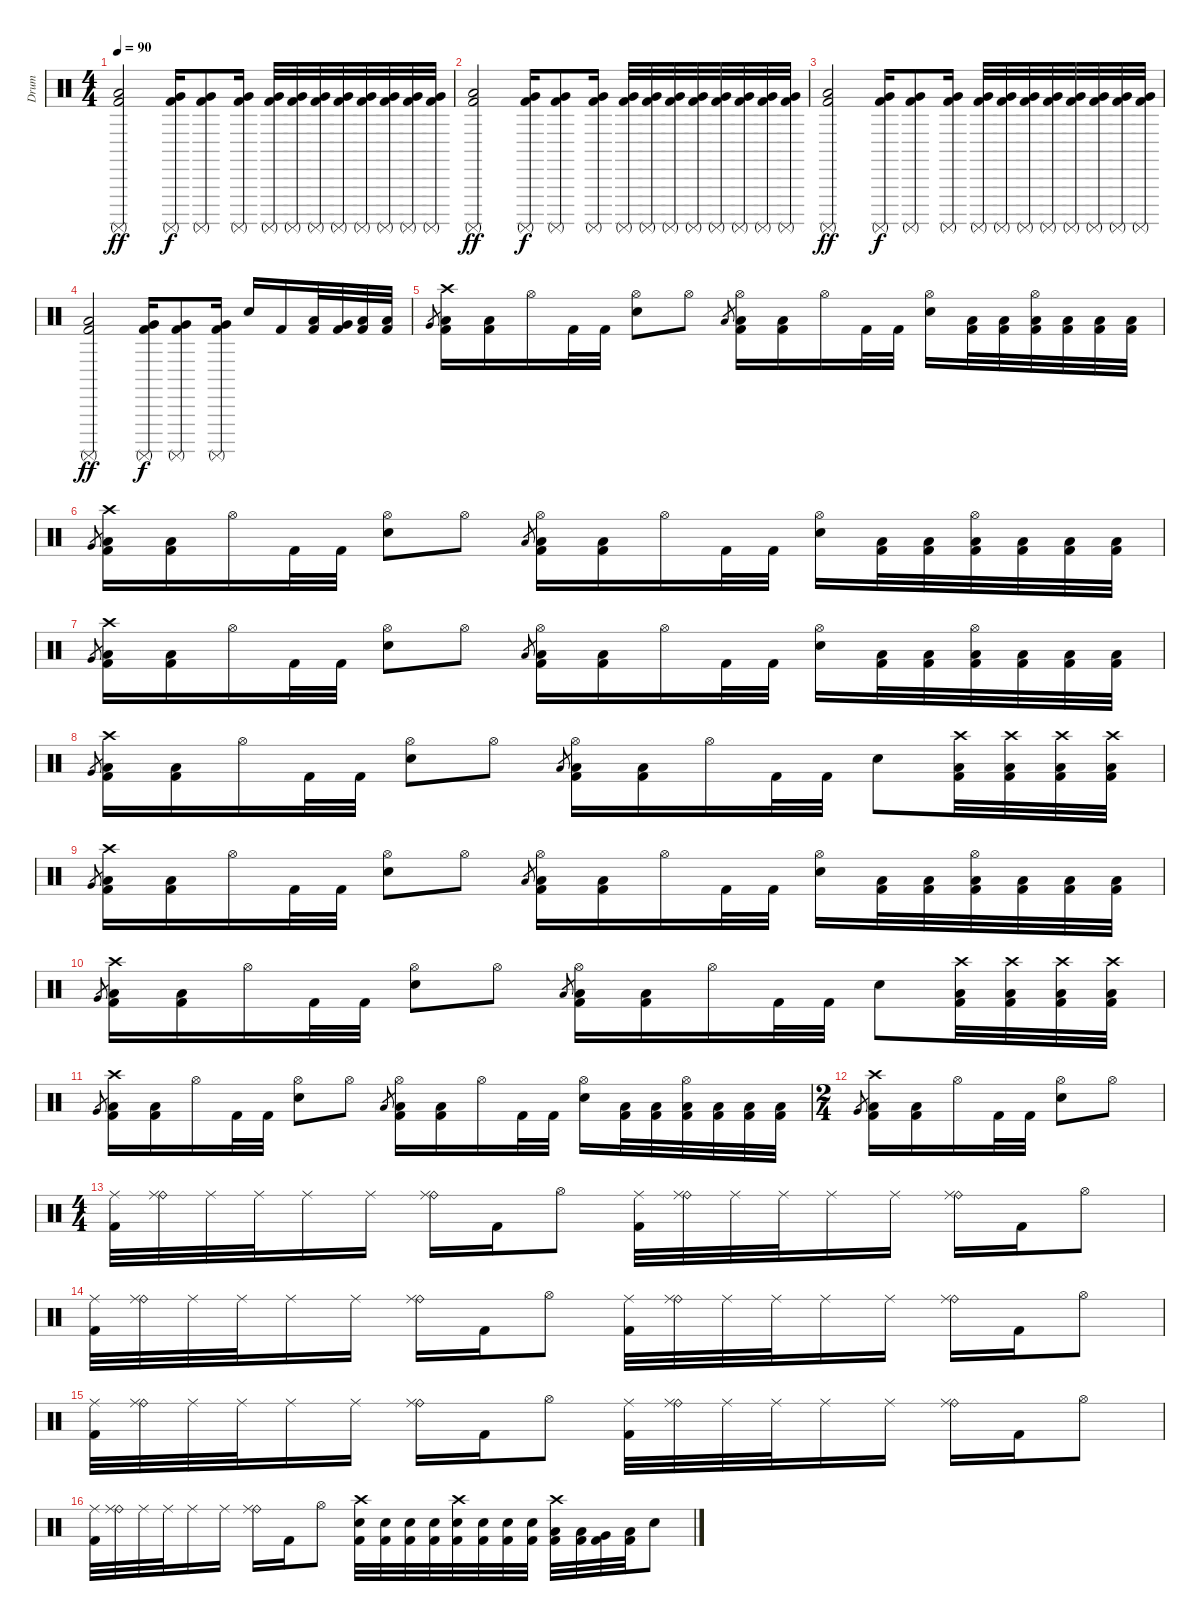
\track ("Drum" "Drum") {instrument percussion}
\staff {score}
\articulation defaults
\ts (4 4)
\tempo 90
\clef neutral
\ks c
("Surdo (mute)" "Low Floor Tom (hit)" "Kick (hit) 2").2{dy ff} ("Surdo (mute)" "Very Low Tom (hit)" "Kick (hit) 2").16{dy f} ("Surdo (mute)" "Very Low Tom (hit)" "Kick (hit) 2").8 ("Surdo (mute)" "Very Low Tom (hit)" "Kick (hit) 2").16 ("Surdo (mute)" "Very Low Tom (hit)" "Kick (hit) 2").32 ("Surdo (mute)" "Very Low Tom (hit)" "Kick (hit) 2").32 ("Surdo (mute)" "Very Low Tom (hit)" "Kick (hit) 2").32 ("Surdo (mute)" "Very Low Tom (hit)" "Kick (hit) 2").32 ("Surdo (mute)" "Very Low Tom (hit)" "Kick (hit) 2").32 ("Surdo (mute)" "Very Low Tom (hit)" "Kick (hit) 2").32 ("Surdo (mute)" "Very Low Tom (hit)" "Kick (hit) 2").32 ("Surdo (mute)" "Very Low Tom (hit)" "Kick (hit) 2").32 |
("Surdo (mute)" "Low Floor Tom (hit)" "Kick (hit) 2").2{dy ff} ("Surdo (mute)" "Very Low Tom (hit)" "Kick (hit) 2").16{dy f} ("Surdo (mute)" "Very Low Tom (hit)" "Kick (hit) 2").8 ("Surdo (mute)" "Very Low Tom (hit)" "Kick (hit) 2").16 ("Surdo (mute)" "Very Low Tom (hit)" "Kick (hit) 2").32 ("Surdo (mute)" "Very Low Tom (hit)" "Kick (hit) 2").32 ("Surdo (mute)" "Very Low Tom (hit)" "Kick (hit) 2").32 ("Surdo (mute)" "Very Low Tom (hit)" "Kick (hit) 2").32 ("Surdo (mute)" "Very Low Tom (hit)" "Kick (hit) 2").32 ("Surdo (mute)" "Very Low Tom (hit)" "Kick (hit) 2").32 ("Surdo (mute)" "Very Low Tom (hit)" "Kick (hit) 2").32 ("Surdo (mute)" "Very Low Tom (hit)" "Kick (hit) 2").32 |
("Surdo (mute)" "Low Floor Tom (hit)" "Kick (hit) 2").2{dy ff} ("Surdo (mute)" "Very Low Tom (hit)" "Kick (hit) 2").16{dy f} ("Surdo (mute)" "Very Low Tom (hit)" "Kick (hit) 2").8 ("Surdo (mute)" "Very Low Tom (hit)" "Kick (hit) 2").16 ("Surdo (mute)" "Very Low Tom (hit)" "Kick (hit) 2").32 ("Surdo (mute)" "Very Low Tom (hit)" "Kick (hit) 2").32 ("Surdo (mute)" "Very Low Tom (hit)" "Kick (hit) 2").32 ("Surdo (mute)" "Very Low Tom (hit)" "Kick (hit) 2").32 ("Surdo (mute)" "Very Low Tom (hit)" "Kick (hit) 2").32 ("Surdo (mute)" "Very Low Tom (hit)" "Kick (hit) 2").32 ("Surdo (mute)" "Very Low Tom (hit)" "Kick (hit) 2").32 ("Surdo (mute)" "Very Low Tom (hit)" "Kick (hit) 2").32 |
("Surdo (mute)" "Low Floor Tom (hit)" "Kick (hit) 2").2{dy ff} ("Surdo (mute)" "Very Low Tom (hit)" "Kick (hit) 2").16{dy f} ("Surdo (mute)" "Very Low Tom (hit)" "Kick (hit) 2").8 ("Surdo (mute)" "Very Low Tom (hit)" "Kick (hit) 2").16 "Electric Snare (hit)".16 "Kick (hit) 2".16 ("Low Tom (hit)" "Kick (hit) 2").32 ("Very Low Tom (hit)" "Kick (hit) 2").32 ("Low Floor Tom (hit)" "Kick (hit) 2").32 ("Low Tom (hit)" "Kick (hit) 2").32 |
"Very Low Tom (hit)".8{gr} ("Crash high (hit)" "Low Floor Tom (hit)" "Kick (hit) 2").16 ("Low Floor Tom (hit)" "Kick (hit) 2").16 "Hi-Hat (open)".16 "Kick (hit) 2".32 "Kick (hit) 2".32 ("Hi-Hat (open)" "Electric Snare (hit)").8 "Hi-Hat (open)".8 "Low Floor Tom (hit)".8{gr} ("Hi-Hat (open)" "Low Floor Tom (hit)" "Kick (hit) 2").16 ("Low Floor Tom (hit)" "Kick (hit) 2").16 "Hi-Hat (open)".16 "Kick (hit) 2".32 "Kick (hit) 2".32 ("Hi-Hat (open)" "Electric Snare (hit)").16 ("Low Floor Tom (hit)" "Kick (hit) 2").32 ("Low Floor Tom (hit)" "Kick (hit) 2").32 ("Hi-Hat (open)" "Low Floor Tom (hit)" "Kick (hit) 2").32 ("Low Floor Tom (hit)" "Kick (hit) 2").32 ("Low Floor Tom (hit)" "Kick (hit) 2").32 ("Low Floor Tom (hit)" "Kick (hit) 2").32 |
"Very Low Tom (hit)".8{gr} ("Crash high (hit)" "Low Floor Tom (hit)" "Kick (hit) 2").16 ("Low Floor Tom (hit)" "Kick (hit) 2").16 "Hi-Hat (open)".16 "Kick (hit) 2".32 "Kick (hit) 2".32 ("Hi-Hat (open)" "Electric Snare (hit)").8 "Hi-Hat (open)".8 "Low Floor Tom (hit)".8{gr} ("Hi-Hat (open)" "Low Floor Tom (hit)" "Kick (hit) 2").16 ("Low Floor Tom (hit)" "Kick (hit) 2").16 "Hi-Hat (open)".16 "Kick (hit) 2".32 "Kick (hit) 2".32 ("Hi-Hat (open)" "Electric Snare (hit)").16 ("Low Floor Tom (hit)" "Kick (hit) 2").32 ("Low Floor Tom (hit)" "Kick (hit) 2").32 ("Hi-Hat (open)" "Low Floor Tom (hit)" "Kick (hit) 2").32 ("Low Floor Tom (hit)" "Kick (hit) 2").32 ("Low Floor Tom (hit)" "Kick (hit) 2").32 ("Low Floor Tom (hit)" "Kick (hit) 2").32 |
"Very Low Tom (hit)".8{gr} ("Crash high (hit)" "Low Floor Tom (hit)" "Kick (hit) 2").16 ("Low Floor Tom (hit)" "Kick (hit) 2").16 "Hi-Hat (open)".16 "Kick (hit) 2".32 "Kick (hit) 2".32 ("Hi-Hat (open)" "Electric Snare (hit)").8 "Hi-Hat (open)".8 "Low Floor Tom (hit)".8{gr} ("Hi-Hat (open)" "Low Floor Tom (hit)" "Kick (hit) 2").16 ("Low Floor Tom (hit)" "Kick (hit) 2").16 "Hi-Hat (open)".16 "Kick (hit) 2".32 "Kick (hit) 2".32 ("Hi-Hat (open)" "Electric Snare (hit)").16 ("Low Floor Tom (hit)" "Kick (hit) 2").32 ("Low Floor Tom (hit)" "Kick (hit) 2").32 ("Hi-Hat (open)" "Low Floor Tom (hit)" "Kick (hit) 2").32 ("Low Floor Tom (hit)" "Kick (hit) 2").32 ("Low Floor Tom (hit)" "Kick (hit) 2").32 ("Low Floor Tom (hit)" "Kick (hit) 2").32 |
"Very Low Tom (hit)".8{gr} ("Crash high (hit)" "Low Floor Tom (hit)" "Kick (hit) 2").16 ("Low Floor Tom (hit)" "Kick (hit) 2").16 "Hi-Hat (open)".16 "Kick (hit) 2".32 "Kick (hit) 2".32 ("Hi-Hat (open)" "Electric Snare (hit)").8 "Hi-Hat (open)".8 "Low Floor Tom (hit)".8{gr} ("Hi-Hat (open)" "Low Floor Tom (hit)" "Kick (hit) 2").16 ("Low Floor Tom (hit)" "Kick (hit) 2").16 "Hi-Hat (open)".16 "Kick (hit) 2".32 "Kick (hit) 2".32 "Electric Snare (hit)".8 ("Crash high (hit)" "Low Floor Tom (hit)" "Kick (hit) 2").32 ("Crash high (hit)" "Low Floor Tom (hit)" "Kick (hit) 2").32 ("Crash high (hit)" "Low Floor Tom (hit)" "Kick (hit) 2").32 ("Crash high (hit)" "Low Floor Tom (hit)" "Kick (hit) 2").32 |
"Very Low Tom (hit)".8{gr} ("Crash high (hit)" "Low Floor Tom (hit)" "Kick (hit) 2").16 ("Low Floor Tom (hit)" "Kick (hit) 2").16 "Hi-Hat (open)".16 "Kick (hit) 2".32 "Kick (hit) 2".32 ("Hi-Hat (open)" "Electric Snare (hit)").8 "Hi-Hat (open)".8 "Low Floor Tom (hit)".8{gr} ("Hi-Hat (open)" "Low Floor Tom (hit)" "Kick (hit) 2").16 ("Low Floor Tom (hit)" "Kick (hit) 2").16 "Hi-Hat (open)".16 "Kick (hit) 2".32 "Kick (hit) 2".32 ("Hi-Hat (open)" "Electric Snare (hit)").16 ("Low Floor Tom (hit)" "Kick (hit) 2").32 ("Low Floor Tom (hit)" "Kick (hit) 2").32 ("Hi-Hat (open)" "Low Floor Tom (hit)" "Kick (hit) 2").32 ("Low Floor Tom (hit)" "Kick (hit) 2").32 ("Low Floor Tom (hit)" "Kick (hit) 2").32 ("Low Floor Tom (hit)" "Kick (hit) 2").32 |
"Very Low Tom (hit)".8{gr} ("Crash high (hit)" "Low Floor Tom (hit)" "Kick (hit) 2").16 ("Low Floor Tom (hit)" "Kick (hit) 2").16 "Hi-Hat (open)".16 "Kick (hit) 2".32 "Kick (hit) 2".32 ("Hi-Hat (open)" "Electric Snare (hit)").8 "Hi-Hat (open)".8 "Low Floor Tom (hit)".8{gr} ("Hi-Hat (open)" "Low Floor Tom (hit)" "Kick (hit) 2").16 ("Low Floor Tom (hit)" "Kick (hit) 2").16 "Hi-Hat (open)".16 "Kick (hit) 2".32 "Kick (hit) 2".32 "Electric Snare (hit)".8 ("Crash high (hit)" "Low Floor Tom (hit)" "Kick (hit) 2").32 ("Crash high (hit)" "Low Floor Tom (hit)" "Kick (hit) 2").32 ("Crash high (hit)" "Low Floor Tom (hit)" "Kick (hit) 2").32 ("Crash high (hit)" "Low Floor Tom (hit)" "Kick (hit) 2").32 |
"Very Low Tom (hit)".8{gr} ("Crash high (hit)" "Low Floor Tom (hit)" "Kick (hit) 2").16 ("Low Floor Tom (hit)" "Kick (hit) 2").16 "Hi-Hat (open)".16 "Kick (hit) 2".32 "Kick (hit) 2".32 ("Hi-Hat (open)" "Electric Snare (hit)").8 "Hi-Hat (open)".8 "Low Floor Tom (hit)".8{gr} ("Hi-Hat (open)" "Low Floor Tom (hit)" "Kick (hit) 2").16 ("Low Floor Tom (hit)" "Kick (hit) 2").16 "Hi-Hat (open)".16 "Kick (hit) 2".32 "Kick (hit) 2".32 ("Hi-Hat (open)" "Electric Snare (hit)").16 ("Low Floor Tom (hit)" "Kick (hit) 2").32 ("Low Floor Tom (hit)" "Kick (hit) 2").32 ("Hi-Hat (open)" "Low Floor Tom (hit)" "Kick (hit) 2").32 ("Low Floor Tom (hit)" "Kick (hit) 2").32 ("Low Floor Tom (hit)" "Kick (hit) 2").32 ("Low Floor Tom (hit)" "Kick (hit) 2").32 |
\ts (2 4)
"Very Low Tom (hit)".8{gr} ("Crash high (hit)" "Low Floor Tom (hit)" "Kick (hit) 2").16 ("Low Floor Tom (hit)" "Kick (hit) 2").16 "Hi-Hat (open)".16 "Kick (hit) 2".32 "Kick (hit) 2".32 ("Hi-Hat (open)" "Electric Snare (hit)").8 "Hi-Hat (open)".8 |
\ts (4 4)
("Ride (middle)" "Kick (hit) 2").32 ("Ride (bell)" "Ride (middle)").32 "Ride (middle)".32 "Ride (middle)".32 "Ride (middle)".16 "Ride (middle)".16 ("Ride (bell)" "Ride (middle)").16 "Kick (hit) 2".16 "Hi-Hat (open)".8 ("Ride (middle)" "Kick (hit) 2").32 ("Ride (bell)" "Ride (middle)").32 "Ride (middle)".32 "Ride (middle)".32 "Ride (middle)".16 "Ride (middle)".16 ("Ride (bell)" "Ride (middle)").16 "Kick (hit) 2".16 "Hi-Hat (open)".8 |
("Ride (middle)" "Kick (hit) 2").32 ("Ride (bell)" "Ride (middle)").32 "Ride (middle)".32 "Ride (middle)".32 "Ride (middle)".16 "Ride (middle)".16 ("Ride (bell)" "Ride (middle)").16 "Kick (hit) 2".16 "Hi-Hat (open)".8 ("Ride (middle)" "Kick (hit) 2").32 ("Ride (bell)" "Ride (middle)").32 "Ride (middle)".32 "Ride (middle)".32 "Ride (middle)".16 "Ride (middle)".16 ("Ride (bell)" "Ride (middle)").16 "Kick (hit) 2".16 "Hi-Hat (open)".8 |
("Ride (middle)" "Kick (hit) 2").32 ("Ride (bell)" "Ride (middle)").32 "Ride (middle)".32 "Ride (middle)".32 "Ride (middle)".16 "Ride (middle)".16 ("Ride (bell)" "Ride (middle)").16 "Kick (hit) 2".16 "Hi-Hat (open)".8 ("Ride (middle)" "Kick (hit) 2").32 ("Ride (bell)" "Ride (middle)").32 "Ride (middle)".32 "Ride (middle)".32 "Ride (middle)".16 "Ride (middle)".16 ("Ride (bell)" "Ride (middle)").16 "Kick (hit) 2".16 "Hi-Hat (open)".8 |
("Ride (middle)" "Kick (hit) 2").32 ("Ride (bell)" "Ride (middle)").32 "Ride (middle)".32 "Ride (middle)".32 "Ride (middle)".16 "Ride (middle)".16 ("Ride (bell)" "Ride (middle)").16 "Kick (hit) 2".16 "Hi-Hat (open)".8 ("Crash high (hit)" "Electric Snare (hit)" "Kick (hit) 2").32 ("Electric Snare (hit)" "Kick (hit) 2").32 ("Electric Snare (hit)" "Kick (hit) 2").32 ("Electric Snare (hit)" "Kick (hit) 2").32 ("Crash high (hit)" "Electric Snare (hit)" "Kick (hit) 2").32 ("Electric Snare (hit)" "Kick (hit) 2").32 ("Electric Snare (hit)" "Kick (hit) 2").32 ("Electric Snare (hit)" "Kick (hit) 2").32 ("Crash high (hit)" "Low Tom (hit)" "Kick (hit) 2").32 ("Low Tom (hit)" "Kick (hit) 2").32 ("Very Low Tom (hit)" "Kick (hit) 2").32 ("Low Floor Tom (hit)" "Kick (hit) 2").32 "Electric Snare (hit)".8
